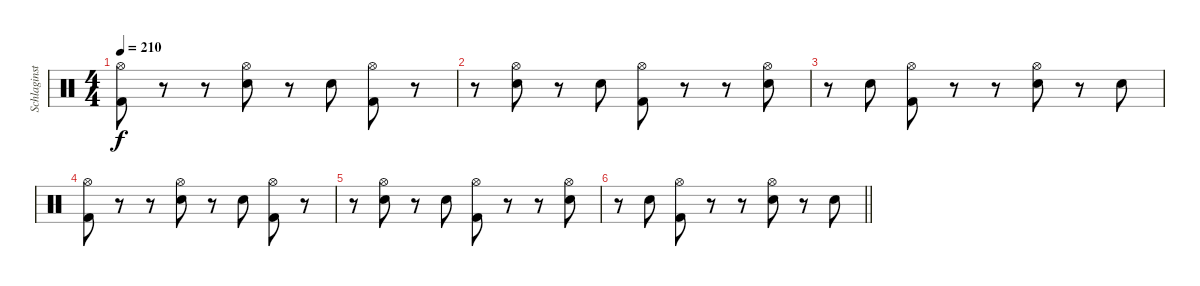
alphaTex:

\track ("Schlaginstrumente - Auswahl" "Schlaginst") {instrument percussion}
\staff {score}
\articulation defaults
\ts (4 4)
\tempo 210
\clef neutral
\ks c
("Hi-Hat (open)" "Kick (hit) 2").8{dy f} r.8 r.8 ("Hi-Hat (open)" "Electric Snare (hit)").8 r.8 "Electric Snare (hit)".8 ("Hi-Hat (open)" "Kick (hit) 2").8 r.8 |
r.8 ("Hi-Hat (open)" "Electric Snare (hit)").8 r.8 "Electric Snare (hit)".8 ("Hi-Hat (open)" "Kick (hit) 2").8 r.8 r.8 ("Hi-Hat (open)" "Electric Snare (hit)").8 |
r.8 "Electric Snare (hit)".8 ("Hi-Hat (open)" "Kick (hit) 2").8 r.8 r.8 ("Hi-Hat (open)" "Electric Snare (hit)").8 r.8 "Electric Snare (hit)".8 |
("Hi-Hat (open)" "Kick (hit) 2").8 r.8 r.8 ("Hi-Hat (open)" "Electric Snare (hit)").8 r.8 "Electric Snare (hit)".8 ("Hi-Hat (open)" "Kick (hit) 2").8 r.8 |
r.8 ("Hi-Hat (open)" "Electric Snare (hit)").8 r.8 "Electric Snare (hit)".8 ("Hi-Hat (open)" "Kick (hit) 2").8 r.8 r.8 ("Hi-Hat (open)" "Electric Snare (hit)").8 |
\barLineRight lightlight
r.8 "Electric Snare (hit)".8 ("Hi-Hat (open)" "Kick (hit) 2").8 r.8 r.8 ("Hi-Hat (open)" "Electric Snare (hit)").8 r.8 "Electric Snare (hit)".8
